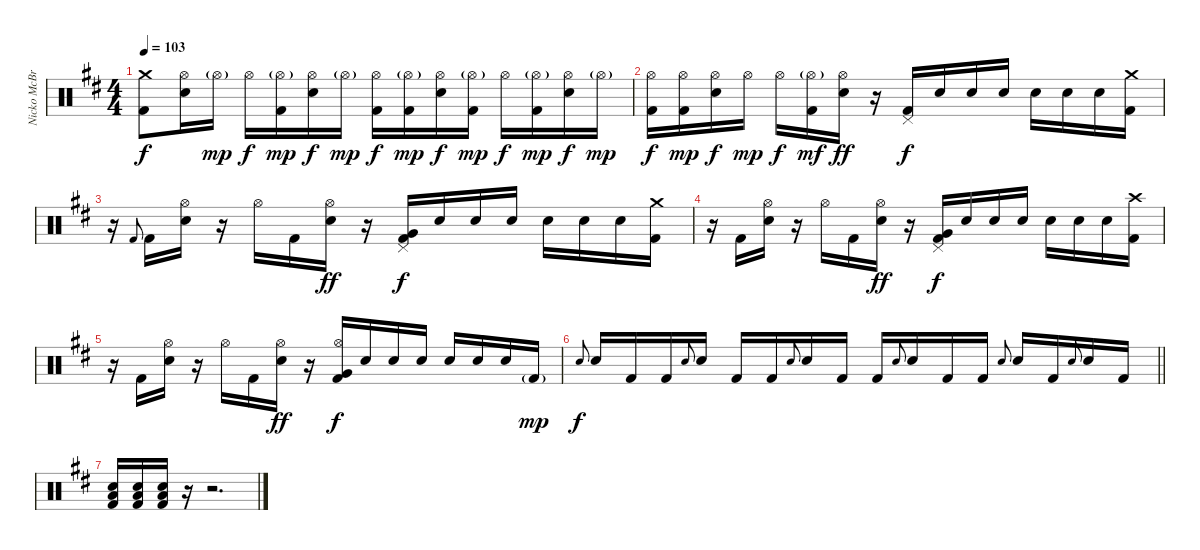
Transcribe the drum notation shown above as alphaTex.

\track ("Nicko McBrain" "Nicko McBr") {instrument percussion}
\staff {score}
\articulation defaults
\ts (4 4)
\tempo 103
\clef neutral
\ks d
("Crash medium (hit)" "Kick (hit) 2").8{dy f} ("Hi-Hat (open)" "Electric Snare (hit)").16 "Hi-Hat (open)"{g}.16{dy mp} "Hi-Hat (open)".16{dy f} ("Hi-Hat (open)"{g} "Kick (hit) 2").16{dy mp} ("Hi-Hat (open)" "Electric Snare (hit)").16{dy f} "Hi-Hat (open)"{g}.16{dy mp} ("Hi-Hat (open)" "Kick (hit) 2").16{dy f} ("Hi-Hat (open)"{g} "Kick (hit) 2").16{dy mp} ("Hi-Hat (open)" "Electric Snare (hit)").16{dy f} ("Hi-Hat (open)"{g} "Kick (hit) 2").16{dy mp} "Hi-Hat (open)".16{dy f} ("Hi-Hat (open)"{g} "Kick (hit) 2").16{dy mp} ("Hi-Hat (open)" "Electric Snare (hit)").16{dy f} "Hi-Hat (open)"{g}.16{dy mp} |
("Hi-Hat (open)" "Kick (hit) 2").16{dy f} ("Hi-Hat (open)" "Kick (hit) 2").16{dy mp} ("Hi-Hat (open)" "Electric Snare (hit)").16{dy f} "Hi-Hat (open)".16{dy mp} "Hi-Hat (open)".16{dy f} ("Hi-Hat (open)"{g} "Kick (hit) 2").16{dy mf} ("Hi-Hat (open)" "Electric Snare (hit)").16{dy ff} r.16 ("Pedal Hi-Hat (hit)" "Kick (hit) 2").16{dy f} "Electric Snare (hit)".16 "Electric Snare (hit)".16 "Electric Snare (hit)".16 "Electric Snare (hit)".16 "Electric Snare (hit)".16 "Electric Snare (hit)".16 ("Crash medium (hit)" "Kick (hit) 2").16 |
r.16 "Kick (hit) 2".8{gr onbeat} "Kick (hit) 2".16 ("Hi-Hat (open)" "Electric Snare (hit)").16 r.16 "Hi-Hat (open)".16 "Kick (hit) 2".16 ("Hi-Hat (open)" "Electric Snare (hit)").16{dy ff} r.16 ("Pedal Hi-Hat (hit)" "Very Low Tom (hit)" "Kick (hit) 2").16{dy f} "Electric Snare (hit)".16 "Electric Snare (hit)".16 "Electric Snare (hit)".16 "Electric Snare (hit)".16 "Electric Snare (hit)".16 "Electric Snare (hit)".16 ("Crash medium (hit)" "Kick (hit) 2").16 |
r.16 "Kick (hit) 2".16 ("Hi-Hat (open)" "Electric Snare (hit)").16 r.16 "Hi-Hat (open)".16 "Kick (hit) 2".16 ("Hi-Hat (open)" "Electric Snare (hit)").16{dy ff} r.16 ("Pedal Hi-Hat (hit)" "Very Low Tom (hit)" "Kick (hit) 2").16{dy f} "Electric Snare (hit)".16 "Electric Snare (hit)".16 "Electric Snare (hit)".16 "Electric Snare (hit)".16 "Electric Snare (hit)".16 "Electric Snare (hit)".16 ("Crash high (hit)" "Kick (hit) 2").16 |
r.16 "Kick (hit) 2".16 ("Hi-Hat (open)" "Electric Snare (hit)").16 r.16 "Hi-Hat (open)".16 "Kick (hit) 2".16 ("Hi-Hat (open)" "Electric Snare (hit)").16{dy ff} r.16 ("Hi-Hat (open)" "Very Low Tom (hit)" "Kick (hit) 2").16{dy f} "Electric Snare (hit)".16 "Electric Snare (hit)".16 "Electric Snare (hit)".16 "Electric Snare (hit)".16 "Electric Snare (hit)".16 "Electric Snare (hit)".16 "Kick (hit) 2"{g}.16{dy mp} |
\barLineRight lightlight "Electric Snare (hit)".8{gr onbeat dy f} "Electric Snare (hit)".16 "Kick (hit) 2".16 "Kick (hit) 2".16 "Electric Snare (hit)".8{gr onbeat} "Electric Snare (hit)".16 "Kick (hit) 2".16 "Kick (hit) 2".16 "Electric Snare (hit)".8{gr onbeat} "Electric Snare (hit)".16 "Kick (hit) 2".16 "Kick (hit) 2".16 "Electric Snare (hit)".8{gr onbeat} "Electric Snare (hit)".16 "Kick (hit) 2".16 "Kick (hit) 2".16 "Electric Snare (hit)".8{gr onbeat} "Electric Snare (hit)".16 "Kick (hit) 2".16 "Electric Snare (hit)".8{gr onbeat} "Electric Snare (hit)".16 "Kick (hit) 2".16
|
("Low Floor Tom (hit)" "Electric Snare (hit)" "Kick (hit) 2").16 ("Low Floor Tom (hit)" "Electric Snare (hit)" "Kick (hit) 2").16 ("Low Floor Tom (hit)" "Electric Snare (hit)" "Kick (hit) 2").16 r.16 r.2{d}
